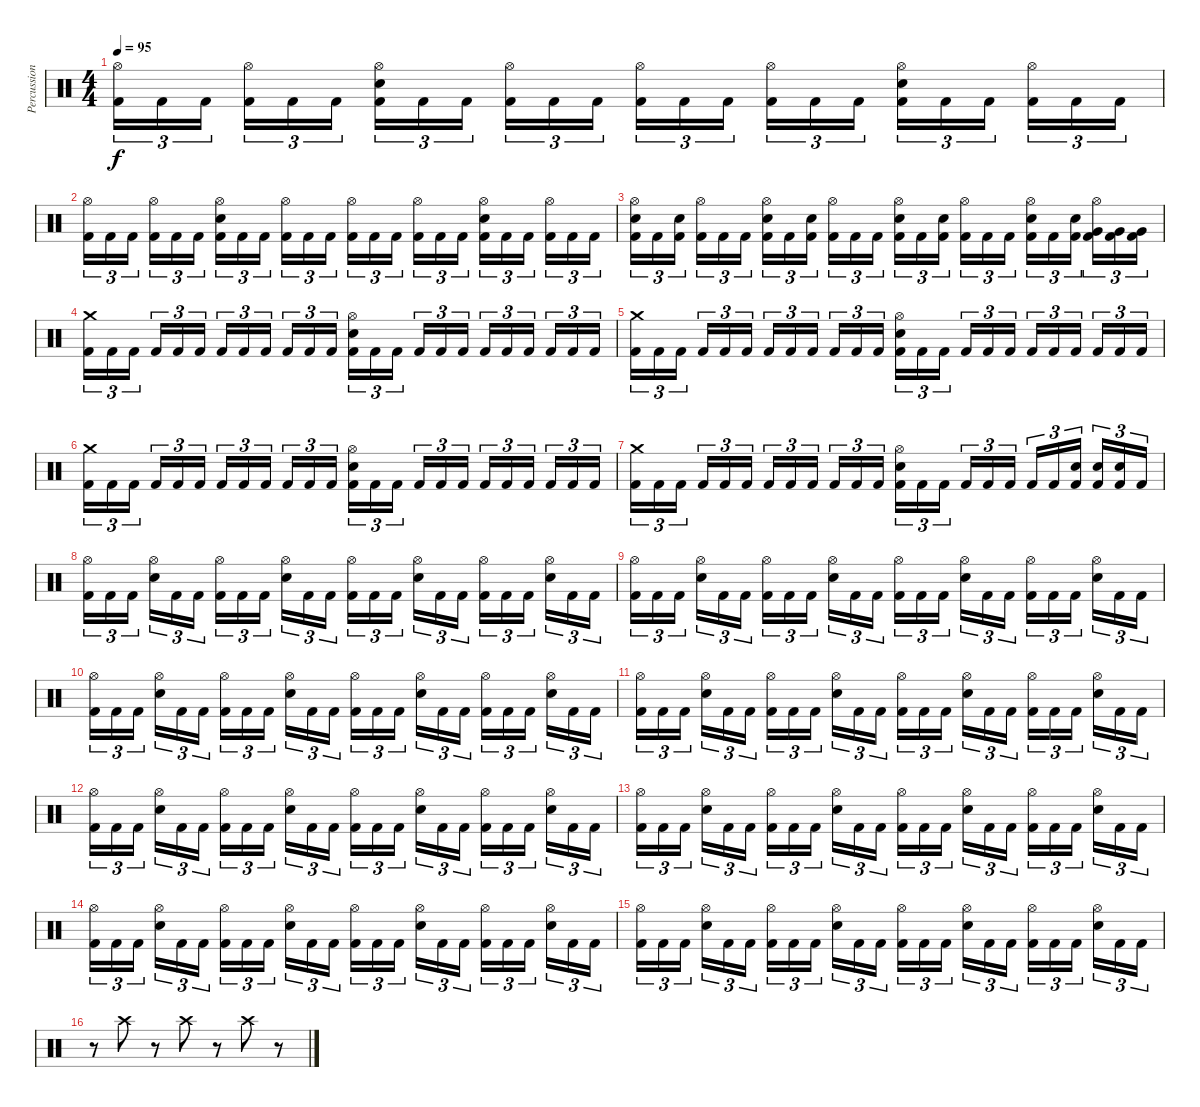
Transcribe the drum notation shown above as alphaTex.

\track ("Percussion" "Percussion") {instrument percussion}
\staff {score}
\articulation defaults
\ts (4 4)
\tempo 95
\clef neutral
\ks c
("Hi-Hat (open)" "Kick (hit) 2").16{tu (3 2) dy f} "Kick (hit) 2".16{tu (3 2)} "Kick (hit) 2".16{tu (3 2)} ("Hi-Hat (open)" "Kick (hit) 2").16{tu (3 2)} "Kick (hit) 2".16{tu (3 2)} "Kick (hit) 2".16{tu (3 2)} ("Hi-Hat (open)" "Electric Snare (hit)" "Kick (hit) 2").16{tu (3 2)} "Kick (hit) 2".16{tu (3 2)} "Kick (hit) 2".16{tu (3 2)} ("Hi-Hat (open)" "Kick (hit) 2").16{tu (3 2)} "Kick (hit) 2".16{tu (3 2)} "Kick (hit) 2".16{tu (3 2)} ("Hi-Hat (open)" "Kick (hit) 2").16{tu (3 2)} "Kick (hit) 2".16{tu (3 2)} "Kick (hit) 2".16{tu (3 2)} ("Hi-Hat (open)" "Kick (hit) 2").16{tu (3 2)} "Kick (hit) 2".16{tu (3 2)} "Kick (hit) 2".16{tu (3 2)} ("Hi-Hat (open)" "Electric Snare (hit)" "Kick (hit) 2").16{tu (3 2)} "Kick (hit) 2".16{tu (3 2)} "Kick (hit) 2".16{tu (3 2)} ("Hi-Hat (open)" "Kick (hit) 2").16{tu (3 2)} "Kick (hit) 2".16{tu (3 2)} "Kick (hit) 2".16{tu (3 2)} |
("Hi-Hat (open)" "Kick (hit) 2").16{tu (3 2)} "Kick (hit) 2".16{tu (3 2)} "Kick (hit) 2".16{tu (3 2)} ("Hi-Hat (open)" "Kick (hit) 2").16{tu (3 2)} "Kick (hit) 2".16{tu (3 2)} "Kick (hit) 2".16{tu (3 2)} ("Hi-Hat (open)" "Electric Snare (hit)" "Kick (hit) 2").16{tu (3 2)} "Kick (hit) 2".16{tu (3 2)} "Kick (hit) 2".16{tu (3 2)} ("Hi-Hat (open)" "Kick (hit) 2").16{tu (3 2)} "Kick (hit) 2".16{tu (3 2)} "Kick (hit) 2".16{tu (3 2)} ("Hi-Hat (open)" "Kick (hit) 2").16{tu (3 2)} "Kick (hit) 2".16{tu (3 2)} "Kick (hit) 2".16{tu (3 2)} ("Hi-Hat (open)" "Kick (hit) 2").16{tu (3 2)} "Kick (hit) 2".16{tu (3 2)} "Kick (hit) 2".16{tu (3 2)} ("Hi-Hat (open)" "Electric Snare (hit)" "Kick (hit) 2").16{tu (3 2)} "Kick (hit) 2".16{tu (3 2)} "Kick (hit) 2".16{tu (3 2)} ("Hi-Hat (open)" "Kick (hit) 2").16{tu (3 2)} "Kick (hit) 2".16{tu (3 2)} "Kick (hit) 2".16{tu (3 2)} |
("Hi-Hat (open)" "Electric Snare (hit)" "Kick (hit) 2").16{tu (3 2)} "Kick (hit) 2".16{tu (3 2)} ("Electric Snare (hit)" "Kick (hit) 2").16{tu (3 2)} ("Hi-Hat (open)" "Kick (hit) 2").16{tu (3 2)} "Kick (hit) 2".16{tu (3 2)} "Kick (hit) 2".16{tu (3 2)} ("Hi-Hat (open)" "Electric Snare (hit)" "Kick (hit) 2").16{tu (3 2)} "Kick (hit) 2".16{tu (3 2)} ("Electric Snare (hit)" "Kick (hit) 2").16{tu (3 2)} ("Hi-Hat (open)" "Kick (hit) 2").16{tu (3 2)} "Kick (hit) 2".16{tu (3 2)} "Kick (hit) 2".16{tu (3 2)} ("Hi-Hat (open)" "Electric Snare (hit)" "Kick (hit) 2").16{tu (3 2)} "Kick (hit) 2".16{tu (3 2)} ("Electric Snare (hit)" "Kick (hit) 2").16{tu (3 2)} ("Hi-Hat (open)" "Kick (hit) 2").16{tu (3 2)} "Kick (hit) 2".16{tu (3 2)} "Kick (hit) 2".16{tu (3 2)} ("Hi-Hat (open)" "Electric Snare (hit)" "Kick (hit) 2").16{tu (3 2)} "Kick (hit) 2".16{tu (3 2)} ("Electric Snare (hit)" "Kick (hit) 2").16{tu (3 2)} ("Hi-Hat (open)" "Very Low Tom (hit)" "Kick (hit) 2").16{tu (3 2)} ("Very Low Tom (hit)" "Kick (hit) 2").16{tu (3 2)} ("Very Low Tom (hit)" "Kick (hit) 2").16{tu (3 2)} |
("Crash medium (hit)" "Kick (hit) 2").16{tu (3 2)} "Kick (hit) 2".16{tu (3 2)} "Kick (hit) 2".16{tu (3 2)} "Kick (hit) 2".16{tu (3 2)} "Kick (hit) 2".16{tu (3 2)} "Kick (hit) 2".16{tu (3 2)} "Kick (hit) 2".16{tu (3 2)} "Kick (hit) 2".16{tu (3 2)} "Kick (hit) 2".16{tu (3 2)} "Kick (hit) 2".16{tu (3 2)} "Kick (hit) 2".16{tu (3 2)} "Kick (hit) 2".16{tu (3 2)} ("Hi-Hat (open)" "Electric Snare (hit)" "Kick (hit) 2").16{tu (3 2)} "Kick (hit) 2".16{tu (3 2)} "Kick (hit) 2".16{tu (3 2)} "Kick (hit) 2".16{tu (3 2)} "Kick (hit) 2".16{tu (3 2)} "Kick (hit) 2".16{tu (3 2)} "Kick (hit) 2".16{tu (3 2)} "Kick (hit) 2".16{tu (3 2)} "Kick (hit) 2".16{tu (3 2)} "Kick (hit) 2".16{tu (3 2)} "Kick (hit) 2".16{tu (3 2)} "Kick (hit) 2".16{tu (3 2)} |
("Crash medium (hit)" "Kick (hit) 2").16{tu (3 2)} "Kick (hit) 2".16{tu (3 2)} "Kick (hit) 2".16{tu (3 2)} "Kick (hit) 2".16{tu (3 2)} "Kick (hit) 2".16{tu (3 2)} "Kick (hit) 2".16{tu (3 2)} "Kick (hit) 2".16{tu (3 2)} "Kick (hit) 2".16{tu (3 2)} "Kick (hit) 2".16{tu (3 2)} "Kick (hit) 2".16{tu (3 2)} "Kick (hit) 2".16{tu (3 2)} "Kick (hit) 2".16{tu (3 2)} ("Hi-Hat (open)" "Electric Snare (hit)" "Kick (hit) 2").16{tu (3 2)} "Kick (hit) 2".16{tu (3 2)} "Kick (hit) 2".16{tu (3 2)} "Kick (hit) 2".16{tu (3 2)} "Kick (hit) 2".16{tu (3 2)} "Kick (hit) 2".16{tu (3 2)} "Kick (hit) 2".16{tu (3 2)} "Kick (hit) 2".16{tu (3 2)} "Kick (hit) 2".16{tu (3 2)} "Kick (hit) 2".16{tu (3 2)} "Kick (hit) 2".16{tu (3 2)} "Kick (hit) 2".16{tu (3 2)} |
("Crash medium (hit)" "Kick (hit) 2").16{tu (3 2)} "Kick (hit) 2".16{tu (3 2)} "Kick (hit) 2".16{tu (3 2)} "Kick (hit) 2".16{tu (3 2)} "Kick (hit) 2".16{tu (3 2)} "Kick (hit) 2".16{tu (3 2)} "Kick (hit) 2".16{tu (3 2)} "Kick (hit) 2".16{tu (3 2)} "Kick (hit) 2".16{tu (3 2)} "Kick (hit) 2".16{tu (3 2)} "Kick (hit) 2".16{tu (3 2)} "Kick (hit) 2".16{tu (3 2)} ("Hi-Hat (open)" "Electric Snare (hit)" "Kick (hit) 2").16{tu (3 2)} "Kick (hit) 2".16{tu (3 2)} "Kick (hit) 2".16{tu (3 2)} "Kick (hit) 2".16{tu (3 2)} "Kick (hit) 2".16{tu (3 2)} "Kick (hit) 2".16{tu (3 2)} "Kick (hit) 2".16{tu (3 2)} "Kick (hit) 2".16{tu (3 2)} "Kick (hit) 2".16{tu (3 2)} "Kick (hit) 2".16{tu (3 2)} "Kick (hit) 2".16{tu (3 2)} "Kick (hit) 2".16{tu (3 2)} |
("Crash medium (hit)" "Kick (hit) 2").16{tu (3 2)} "Kick (hit) 2".16{tu (3 2)} "Kick (hit) 2".16{tu (3 2)} "Kick (hit) 2".16{tu (3 2)} "Kick (hit) 2".16{tu (3 2)} "Kick (hit) 2".16{tu (3 2)} "Kick (hit) 2".16{tu (3 2)} "Kick (hit) 2".16{tu (3 2)} "Kick (hit) 2".16{tu (3 2)} "Kick (hit) 2".16{tu (3 2)} "Kick (hit) 2".16{tu (3 2)} "Kick (hit) 2".16{tu (3 2)} ("Hi-Hat (open)" "Electric Snare (hit)" "Kick (hit) 2").16{tu (3 2)} "Kick (hit) 2".16{tu (3 2)} "Kick (hit) 2".16{tu (3 2)} "Kick (hit) 2".16{tu (3 2)} "Kick (hit) 2".16{tu (3 2)} "Kick (hit) 2".16{tu (3 2)} "Kick (hit) 2".16{tu (3 2)} "Kick (hit) 2".16{tu (3 2)} ("Electric Snare (hit)" "Kick (hit) 2").16{tu (3 2)} ("Electric Snare (hit)" "Kick (hit) 2").16{tu (3 2)} ("Electric Snare (hit)" "Kick (hit) 2").16{tu (3 2)} "Kick (hit) 2".16{tu (3 2)} |
("Hi-Hat (open)" "Kick (hit) 2").16{tu (3 2)} "Kick (hit) 2".16{tu (3 2)} "Kick (hit) 2".16{tu (3 2)} ("Hi-Hat (open)" "Electric Snare (hit)").16{tu (3 2)} "Kick (hit) 2".16{tu (3 2)} "Kick (hit) 2".16{tu (3 2)} ("Hi-Hat (open)" "Kick (hit) 2").16{tu (3 2)} "Kick (hit) 2".16{tu (3 2)} "Kick (hit) 2".16{tu (3 2)} ("Hi-Hat (open)" "Electric Snare (hit)").16{tu (3 2)} "Kick (hit) 2".16{tu (3 2)} "Kick (hit) 2".16{tu (3 2)} ("Hi-Hat (open)" "Kick (hit) 2").16{tu (3 2)} "Kick (hit) 2".16{tu (3 2)} "Kick (hit) 2".16{tu (3 2)} ("Hi-Hat (open)" "Electric Snare (hit)").16{tu (3 2)} "Kick (hit) 2".16{tu (3 2)} "Kick (hit) 2".16{tu (3 2)} ("Hi-Hat (open)" "Kick (hit) 2").16{tu (3 2)} "Kick (hit) 2".16{tu (3 2)} "Kick (hit) 2".16{tu (3 2)} ("Hi-Hat (open)" "Electric Snare (hit)").16{tu (3 2)} "Kick (hit) 2".16{tu (3 2)} "Kick (hit) 2".16{tu (3 2)} |
("Hi-Hat (open)" "Kick (hit) 2").16{tu (3 2)} "Kick (hit) 2".16{tu (3 2)} "Kick (hit) 2".16{tu (3 2)} ("Hi-Hat (open)" "Electric Snare (hit)").16{tu (3 2)} "Kick (hit) 2".16{tu (3 2)} "Kick (hit) 2".16{tu (3 2)} ("Hi-Hat (open)" "Kick (hit) 2").16{tu (3 2)} "Kick (hit) 2".16{tu (3 2)} "Kick (hit) 2".16{tu (3 2)} ("Hi-Hat (open)" "Electric Snare (hit)").16{tu (3 2)} "Kick (hit) 2".16{tu (3 2)} "Kick (hit) 2".16{tu (3 2)} ("Hi-Hat (open)" "Kick (hit) 2").16{tu (3 2)} "Kick (hit) 2".16{tu (3 2)} "Kick (hit) 2".16{tu (3 2)} ("Hi-Hat (open)" "Electric Snare (hit)").16{tu (3 2)} "Kick (hit) 2".16{tu (3 2)} "Kick (hit) 2".16{tu (3 2)} ("Hi-Hat (open)" "Kick (hit) 2").16{tu (3 2)} "Kick (hit) 2".16{tu (3 2)} "Kick (hit) 2".16{tu (3 2)} ("Hi-Hat (open)" "Electric Snare (hit)").16{tu (3 2)} "Kick (hit) 2".16{tu (3 2)} "Kick (hit) 2".16{tu (3 2)} |
("Hi-Hat (open)" "Kick (hit) 2").16{tu (3 2)} "Kick (hit) 2".16{tu (3 2)} "Kick (hit) 2".16{tu (3 2)} ("Hi-Hat (open)" "Electric Snare (hit)").16{tu (3 2)} "Kick (hit) 2".16{tu (3 2)} "Kick (hit) 2".16{tu (3 2)} ("Hi-Hat (open)" "Kick (hit) 2").16{tu (3 2)} "Kick (hit) 2".16{tu (3 2)} "Kick (hit) 2".16{tu (3 2)} ("Hi-Hat (open)" "Electric Snare (hit)").16{tu (3 2)} "Kick (hit) 2".16{tu (3 2)} "Kick (hit) 2".16{tu (3 2)} ("Hi-Hat (open)" "Kick (hit) 2").16{tu (3 2)} "Kick (hit) 2".16{tu (3 2)} "Kick (hit) 2".16{tu (3 2)} ("Hi-Hat (open)" "Electric Snare (hit)").16{tu (3 2)} "Kick (hit) 2".16{tu (3 2)} "Kick (hit) 2".16{tu (3 2)} ("Hi-Hat (open)" "Kick (hit) 2").16{tu (3 2)} "Kick (hit) 2".16{tu (3 2)} "Kick (hit) 2".16{tu (3 2)} ("Hi-Hat (open)" "Electric Snare (hit)").16{tu (3 2)} "Kick (hit) 2".16{tu (3 2)} "Kick (hit) 2".16{tu (3 2)} |
("Hi-Hat (open)" "Kick (hit) 2").16{tu (3 2)} "Kick (hit) 2".16{tu (3 2)} "Kick (hit) 2".16{tu (3 2)} ("Hi-Hat (open)" "Electric Snare (hit)").16{tu (3 2)} "Kick (hit) 2".16{tu (3 2)} "Kick (hit) 2".16{tu (3 2)} ("Hi-Hat (open)" "Kick (hit) 2").16{tu (3 2)} "Kick (hit) 2".16{tu (3 2)} "Kick (hit) 2".16{tu (3 2)} ("Hi-Hat (open)" "Electric Snare (hit)").16{tu (3 2)} "Kick (hit) 2".16{tu (3 2)} "Kick (hit) 2".16{tu (3 2)} ("Hi-Hat (open)" "Kick (hit) 2").16{tu (3 2)} "Kick (hit) 2".16{tu (3 2)} "Kick (hit) 2".16{tu (3 2)} ("Hi-Hat (open)" "Electric Snare (hit)").16{tu (3 2)} "Kick (hit) 2".16{tu (3 2)} "Kick (hit) 2".16{tu (3 2)} ("Hi-Hat (open)" "Kick (hit) 2").16{tu (3 2)} "Kick (hit) 2".16{tu (3 2)} "Kick (hit) 2".16{tu (3 2)} ("Hi-Hat (open)" "Electric Snare (hit)").16{tu (3 2)} "Kick (hit) 2".16{tu (3 2)} "Kick (hit) 2".16{tu (3 2)} |
("Hi-Hat (open)" "Kick (hit) 2").16{tu (3 2)} "Kick (hit) 2".16{tu (3 2)} "Kick (hit) 2".16{tu (3 2)} ("Hi-Hat (open)" "Electric Snare (hit)").16{tu (3 2)} "Kick (hit) 2".16{tu (3 2)} "Kick (hit) 2".16{tu (3 2)} ("Hi-Hat (open)" "Kick (hit) 2").16{tu (3 2)} "Kick (hit) 2".16{tu (3 2)} "Kick (hit) 2".16{tu (3 2)} ("Hi-Hat (open)" "Electric Snare (hit)").16{tu (3 2)} "Kick (hit) 2".16{tu (3 2)} "Kick (hit) 2".16{tu (3 2)} ("Hi-Hat (open)" "Kick (hit) 2").16{tu (3 2)} "Kick (hit) 2".16{tu (3 2)} "Kick (hit) 2".16{tu (3 2)} ("Hi-Hat (open)" "Electric Snare (hit)").16{tu (3 2)} "Kick (hit) 2".16{tu (3 2)} "Kick (hit) 2".16{tu (3 2)} ("Hi-Hat (open)" "Kick (hit) 2").16{tu (3 2)} "Kick (hit) 2".16{tu (3 2)} "Kick (hit) 2".16{tu (3 2)} ("Hi-Hat (open)" "Electric Snare (hit)").16{tu (3 2)} "Kick (hit) 2".16{tu (3 2)} "Kick (hit) 2".16{tu (3 2)} |
("Hi-Hat (open)" "Kick (hit) 2").16{tu (3 2)} "Kick (hit) 2".16{tu (3 2)} "Kick (hit) 2".16{tu (3 2)} ("Hi-Hat (open)" "Electric Snare (hit)").16{tu (3 2)} "Kick (hit) 2".16{tu (3 2)} "Kick (hit) 2".16{tu (3 2)} ("Hi-Hat (open)" "Kick (hit) 2").16{tu (3 2)} "Kick (hit) 2".16{tu (3 2)} "Kick (hit) 2".16{tu (3 2)} ("Hi-Hat (open)" "Electric Snare (hit)").16{tu (3 2)} "Kick (hit) 2".16{tu (3 2)} "Kick (hit) 2".16{tu (3 2)} ("Hi-Hat (open)" "Kick (hit) 2").16{tu (3 2)} "Kick (hit) 2".16{tu (3 2)} "Kick (hit) 2".16{tu (3 2)} ("Hi-Hat (open)" "Electric Snare (hit)").16{tu (3 2)} "Kick (hit) 2".16{tu (3 2)} "Kick (hit) 2".16{tu (3 2)} ("Hi-Hat (open)" "Kick (hit) 2").16{tu (3 2)} "Kick (hit) 2".16{tu (3 2)} "Kick (hit) 2".16{tu (3 2)} ("Hi-Hat (open)" "Electric Snare (hit)").16{tu (3 2)} "Kick (hit) 2".16{tu (3 2)} "Kick (hit) 2".16{tu (3 2)} |
("Hi-Hat (open)" "Kick (hit) 2").16{tu (3 2)} "Kick (hit) 2".16{tu (3 2)} "Kick (hit) 2".16{tu (3 2)} ("Hi-Hat (open)" "Electric Snare (hit)").16{tu (3 2)} "Kick (hit) 2".16{tu (3 2)} "Kick (hit) 2".16{tu (3 2)} ("Hi-Hat (open)" "Kick (hit) 2").16{tu (3 2)} "Kick (hit) 2".16{tu (3 2)} "Kick (hit) 2".16{tu (3 2)} ("Hi-Hat (open)" "Electric Snare (hit)").16{tu (3 2)} "Kick (hit) 2".16{tu (3 2)} "Kick (hit) 2".16{tu (3 2)} ("Hi-Hat (open)" "Kick (hit) 2").16{tu (3 2)} "Kick (hit) 2".16{tu (3 2)} "Kick (hit) 2".16{tu (3 2)} ("Hi-Hat (open)" "Electric Snare (hit)").16{tu (3 2)} "Kick (hit) 2".16{tu (3 2)} "Kick (hit) 2".16{tu (3 2)} ("Hi-Hat (open)" "Kick (hit) 2").16{tu (3 2)} "Kick (hit) 2".16{tu (3 2)} "Kick (hit) 2".16{tu (3 2)} ("Hi-Hat (open)" "Electric Snare (hit)").16{tu (3 2)} "Kick (hit) 2".16{tu (3 2)} "Kick (hit) 2".16{tu (3 2)} |
("Hi-Hat (open)" "Kick (hit) 2").16{tu (3 2)} "Kick (hit) 2".16{tu (3 2)} "Kick (hit) 2".16{tu (3 2)} ("Hi-Hat (open)" "Electric Snare (hit)").16{tu (3 2)} "Kick (hit) 2".16{tu (3 2)} "Kick (hit) 2".16{tu (3 2)} ("Hi-Hat (open)" "Kick (hit) 2").16{tu (3 2)} "Kick (hit) 2".16{tu (3 2)} "Kick (hit) 2".16{tu (3 2)} ("Hi-Hat (open)" "Electric Snare (hit)").16{tu (3 2)} "Kick (hit) 2".16{tu (3 2)} "Kick (hit) 2".16{tu (3 2)} ("Hi-Hat (open)" "Kick (hit) 2").16{tu (3 2)} "Kick (hit) 2".16{tu (3 2)} "Kick (hit) 2".16{tu (3 2)} ("Hi-Hat (open)" "Electric Snare (hit)").16{tu (3 2)} "Kick (hit) 2".16{tu (3 2)} "Kick (hit) 2".16{tu (3 2)} ("Hi-Hat (open)" "Kick (hit) 2").16{tu (3 2)} "Kick (hit) 2".16{tu (3 2)} "Kick (hit) 2".16{tu (3 2)} ("Hi-Hat (open)" "Electric Snare (hit)").16{tu (3 2)} "Kick (hit) 2".16{tu (3 2)} "Kick (hit) 2".16{tu (3 2)} |
r.8 "Crash high (hit)".8 r.8 "Crash high (hit)".8 r.8 "Crash high (hit)".8 r.8
